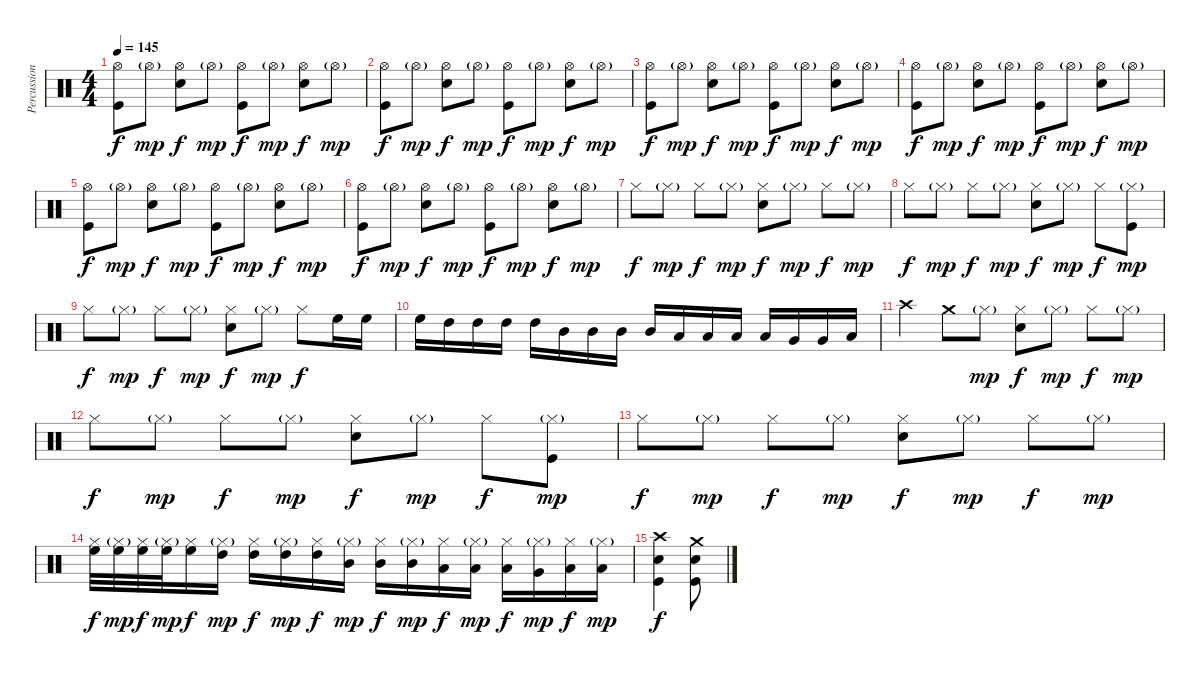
\track ("Percussion" "Percussion") {instrument percussion}
\staff {score}
\articulation defaults
\ts (4 4)
\tempo 145
\clef neutral
\ks c
("Hi-Hat (open)" "Kick (hit)").8{dy f} "Hi-Hat (open)"{g}.8{dy mp} ("Hi-Hat (open)" "Snare (hit) 2").8{dy f} "Hi-Hat (open)"{g}.8{dy mp} ("Hi-Hat (open)" "Kick (hit)").8{dy f} "Hi-Hat (open)"{g}.8{dy mp} ("Hi-Hat (open)" "Snare (hit) 2").8{dy f} "Hi-Hat (open)"{g}.8{dy mp} |
("Hi-Hat (open)" "Kick (hit)").8{dy f} "Hi-Hat (open)"{g}.8{dy mp} ("Hi-Hat (open)" "Snare (hit) 2").8{dy f} "Hi-Hat (open)"{g}.8{dy mp} ("Hi-Hat (open)" "Kick (hit)").8{dy f} "Hi-Hat (open)"{g}.8{dy mp} ("Hi-Hat (open)" "Snare (hit) 2").8{dy f} "Hi-Hat (open)"{g}.8{dy mp} |
("Hi-Hat (open)" "Kick (hit)").8{dy f} "Hi-Hat (open)"{g}.8{dy mp} ("Hi-Hat (open)" "Snare (hit) 2").8{dy f} "Hi-Hat (open)"{g}.8{dy mp} ("Hi-Hat (open)" "Kick (hit)").8{dy f} "Hi-Hat (open)"{g}.8{dy mp} ("Hi-Hat (open)" "Snare (hit) 2").8{dy f} "Hi-Hat (open)"{g}.8{dy mp} |
("Hi-Hat (open)" "Kick (hit)").8{dy f} "Hi-Hat (open)"{g}.8{dy mp} ("Hi-Hat (open)" "Snare (hit) 2").8{dy f} "Hi-Hat (open)"{g}.8{dy mp} ("Hi-Hat (open)" "Kick (hit)").8{dy f} "Hi-Hat (open)"{g}.8{dy mp} ("Hi-Hat (open)" "Snare (hit) 2").8{dy f} "Hi-Hat (open)"{g}.8{dy mp} |
("Hi-Hat (open)" "Kick (hit)").8{dy f} "Hi-Hat (open)"{g}.8{dy mp} ("Hi-Hat (open)" "Snare (hit) 2").8{dy f} "Hi-Hat (open)"{g}.8{dy mp} ("Hi-Hat (open)" "Kick (hit)").8{dy f} "Hi-Hat (open)"{g}.8{dy mp} ("Hi-Hat (open)" "Snare (hit) 2").8{dy f} "Hi-Hat (open)"{g}.8{dy mp} |
("Hi-Hat (open)" "Kick (hit)").8{dy f} "Hi-Hat (open)"{g}.8{dy mp} ("Hi-Hat (open)" "Snare (hit) 2").8{dy f} "Hi-Hat (open)"{g}.8{dy mp} ("Hi-Hat (open)" "Kick (hit)").8{dy f} "Hi-Hat (open)"{g}.8{dy mp} ("Hi-Hat (open)" "Snare (hit) 2").8{dy f} "Hi-Hat (open)"{g}.8{dy mp} |
"Hi-Hat (closed)".8{dy f} "Hi-Hat (closed)"{g}.8{dy mp} "Hi-Hat (closed)".8{dy f} "Hi-Hat (closed)"{g}.8{dy mp} ("Hi-Hat (closed)" "Snare (hit) 2").8{dy f} "Hi-Hat (closed)"{g}.8{dy mp} "Hi-Hat (closed)".8{dy f} "Hi-Hat (closed)"{g}.8{dy mp} |
"Hi-Hat (closed)".8{dy f} "Hi-Hat (closed)"{g}.8{dy mp} "Hi-Hat (closed)".8{dy f} "Hi-Hat (closed)"{g}.8{dy mp} ("Hi-Hat (closed)" "Snare (hit) 2").8{dy f} "Hi-Hat (closed)"{g}.8{dy mp} "Hi-Hat (closed)".8{dy f} ("Hi-Hat (closed)"{g} "Kick (hit)").8{dy mp} |
"Hi-Hat (closed)".8{dy f} "Hi-Hat (closed)"{g}.8{dy mp} "Hi-Hat (closed)".8{dy f} "Hi-Hat (closed)"{g}.8{dy mp} ("Hi-Hat (closed)" "Snare (hit) 2").8{dy f} "Hi-Hat (closed)"{g}.8{dy mp} "Hi-Hat (closed)".8{dy f} "High Floor Tom (hit)".16 "High Floor Tom (hit)".16 |
"High Floor Tom (hit)".16 "High Tom (hit)".16 "High Tom (hit)".16 "High Tom (hit)".16 "High Tom (hit)".16 "Mid Tom (hit)".16 "Mid Tom (hit)".16 "Mid Tom (hit)".16 "Mid Tom (hit)".16 "Low Tom (hit)".16 "Low Tom (hit)".16 "Low Tom (hit)".16 "Low Tom (hit)".16 "Very Low Tom (hit)".16 "Very Low Tom (hit)".16 "Low Floor Tom (hit)".16 |
"Crash high (hit)".4 "Crash medium (hit)".8 "Hi-Hat (closed)"{g}.8{dy mp} ("Hi-Hat (closed)" "Snare (hit) 2").8{dy f} "Hi-Hat (closed)"{g}.8{dy mp} "Hi-Hat (closed)".8{dy f} "Hi-Hat (closed)"{g}.8{dy mp} |
"Hi-Hat (closed)".8{dy f} "Hi-Hat (closed)"{g}.8{dy mp} "Hi-Hat (closed)".8{dy f} "Hi-Hat (closed)"{g}.8{dy mp} ("Hi-Hat (closed)" "Snare (hit) 2").8{dy f} "Hi-Hat (closed)"{g}.8{dy mp} "Hi-Hat (closed)".8{dy f} ("Hi-Hat (closed)"{g} "Kick (hit)").8{dy mp} |
"Hi-Hat (closed)".8{dy f} "Hi-Hat (closed)"{g}.8{dy mp} "Hi-Hat (closed)".8{dy f} "Hi-Hat (closed)"{g}.8{dy mp} ("Hi-Hat (closed)" "Snare (hit) 2").8{dy f} "Hi-Hat (closed)"{g}.8{dy mp} "Hi-Hat (closed)".8{dy f} "Hi-Hat (closed)"{g}.8{dy mp} |
("Hi-Hat (closed)" "High Floor Tom (hit)").32{dy f} ("Hi-Hat (closed)"{g} "High Floor Tom (hit)").32{dy mp} ("Hi-Hat (closed)" "High Floor Tom (hit)").32{dy f} ("Hi-Hat (closed)"{g} "High Floor Tom (hit)").32{dy mp} ("Hi-Hat (closed)" "High Floor Tom (hit)").16{dy f} ("Hi-Hat (closed)"{g} "High Tom (hit)").16{dy mp} ("Hi-Hat (closed)" "High Tom (hit)").16{dy f} ("Hi-Hat (closed)"{g} "High Tom (hit)").16{dy mp} ("Hi-Hat (closed)" "High Tom (hit)").16{dy f} ("Hi-Hat (closed)"{g} "Mid Tom (hit)").16{dy mp} ("Hi-Hat (closed)" "Mid Tom (hit)").16{dy f} ("Hi-Hat (closed)"{g} "Mid Tom (hit)").16{dy mp} ("Hi-Hat (closed)" "Low Tom (hit)").16{dy f} ("Hi-Hat (closed)"{g} "Low Tom (hit)").16{dy mp} ("Hi-Hat (closed)" "Low Tom (hit)").16{dy f} ("Hi-Hat (closed)"{g} "Very Low Tom (hit)").16{dy mp} ("Hi-Hat (closed)" "Low Floor Tom (hit)").16{dy f} ("Hi-Hat (closed)"{g} "Low Floor Tom (hit)").16{dy mp} |
("Crash high (hit)" "Kick (hit)" "Snare (hit) 2").4{dy f} ("Crash medium (hit)" "Kick (hit)" "Snare (hit) 2").8
